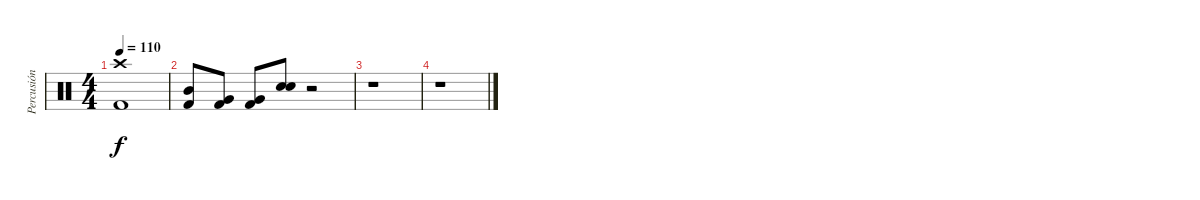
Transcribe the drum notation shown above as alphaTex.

\track ("Percusión" "Percusión") {instrument percussion}
\staff {score}
\articulation defaults
\ts (4 4)
\tempo 110
\clef neutral
\ks c
("Crash high (hit)" "Kick (hit) 2").1{dy f} |
("Mid Tom (hit)" "Kick (hit) 2").8 ("Very Low Tom (hit)" "Kick (hit) 2").8 ("Very Low Tom (hit)" "Kick (hit) 2").8 ("Electric Snare (hit)" "Electric Snare (hit)").8 r.2 |
r.1 |
r.1
